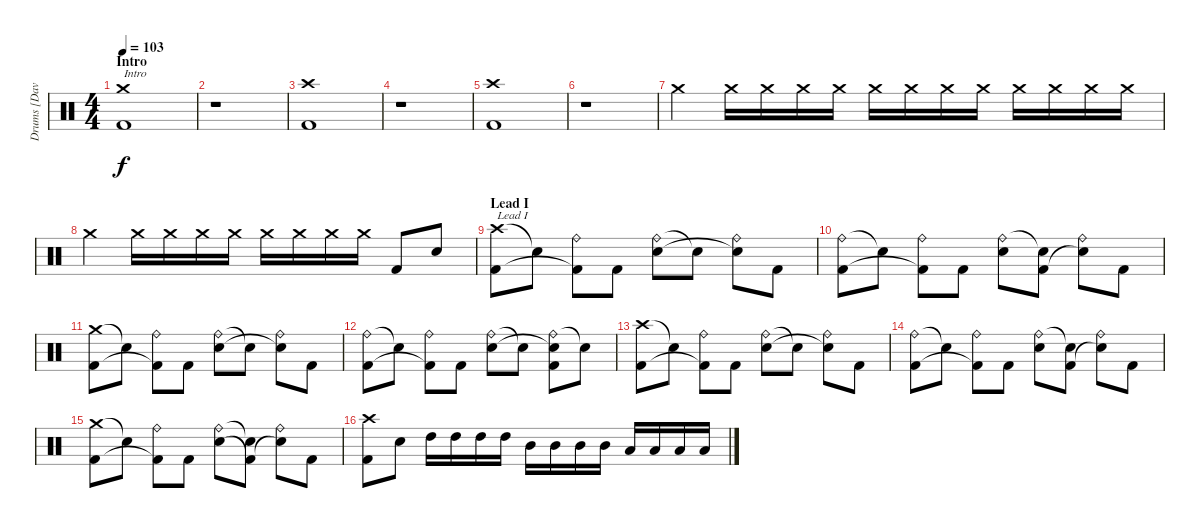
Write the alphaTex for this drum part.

\track ("Drums [Dave Culross]" "Drums [Dav") {instrument percussion}
\staff {score}
\articulation defaults
\ts (4 4)
\section ("" "Intro")
\tempo 103
\clef neutral
\ks c
("Crash medium (hit)" "Kick (hit) 2").1{txt "Intro" dy f} |
r.1 |
("Crash high (hit)" "Kick (hit) 2").1 |
r.1 |
("Crash high (hit)" "Kick (hit) 2").1 |
r.1 |
"Crash medium (hit)".4 "Crash medium (hit)".16{volume 3} "Crash medium (hit)".16{volume 14} "Crash medium (hit)".16 "Crash medium (hit)".16 "Crash medium (hit)".16 "Crash medium (hit)".16 "Crash medium (hit)".16 "Crash medium (hit)".16 "Crash medium (hit)".16 "Crash medium (hit)".16 "Crash medium (hit)".16 "Crash medium (hit)".16 |
"Crash medium (hit)".4 "Crash medium (hit)".16{volume 3} "Crash medium (hit)".16{volume 14} "Crash medium (hit)".16 "Crash medium (hit)".16 "Crash medium (hit)".16 "Crash medium (hit)".16 "Crash medium (hit)".16 "Crash medium (hit)".16 "Kick (hit) 2".8 "Electric Snare (hit)".8 |
\section ("" "Lead I")
("Crash high (hit)" "Kick (hit) 2").8{txt "Lead I"} "Snare (hit)"{t}.8 ("Ride (bell)" "Kick (hit) 2"{t}).8 "Kick (hit) 2".8 ("Ride (bell)" "Electric Snare (hit)").8 "Snare (hit)"{t}.8 ("Ride (bell)" "Snare (hit)"{t}).8 "Kick (hit) 2".8 |
("Ride (bell)" "Kick (hit) 2").8 "Snare (hit)"{t}.8 ("Ride (bell)" "Kick (hit) 2"{t}).8 "Kick (hit) 2".8 ("Ride (bell)" "Electric Snare (hit)").8 ("Snare (hit)"{t} "Kick (hit) 2").8 ("Ride (bell)" "Snare (hit)"{t}).8 "Kick (hit) 2".8 |
("Crash medium (hit)" "Kick (hit) 2").8 "Snare (hit)"{t}.8 ("Ride (bell)" "Kick (hit) 2"{t}).8 "Kick (hit) 2".8 ("Ride (bell)" "Electric Snare (hit)").8 "Snare (hit)"{t}.8 ("Ride (bell)" "Snare (hit)"{t}).8 "Kick (hit) 2".8 |
("Ride (bell)" "Kick (hit) 2").8 "Snare (hit)"{t}.8 ("Ride (bell)" "Kick (hit) 2"{t}).8 "Kick (hit) 2".8 ("Ride (bell)" "Electric Snare (hit)").8 "Snare (hit)"{t}.8 ("Ride (bell)" "Snare (hit)"{t} "Kick (hit) 2").8 "Snare (hit)"{t}.8 |
("Crash high (hit)" "Kick (hit) 2").8 "Snare (hit)"{t}.8 ("Ride (bell)" "Kick (hit) 2"{t}).8 "Kick (hit) 2".8 ("Ride (bell)" "Electric Snare (hit)").8 "Snare (hit)"{t}.8 ("Ride (bell)" "Snare (hit)"{t}).8 "Kick (hit) 2".8 |
("Ride (bell)" "Kick (hit) 2").8 "Snare (hit)"{t}.8 ("Ride (bell)" "Kick (hit) 2"{t}).8 "Kick (hit) 2".8 ("Ride (bell)" "Electric Snare (hit)").8 ("Snare (hit)"{t} "Kick (hit) 2").8 ("Ride (bell)" "Snare (hit)"{t}).8 "Kick (hit) 2".8 |
("Crash medium (hit)" "Kick (hit) 2").8 "Snare (hit)"{t}.8 ("Ride (bell)" "Kick (hit) 2"{t}).8 "Kick (hit) 2".8 ("Ride (bell)" "Electric Snare (hit)").8 ("Snare (hit)"{t} "Kick (hit) 2"{t}).8 ("Ride (bell)" "Snare (hit)"{t}).8 "Kick (hit) 2".8 |
("Crash high (hit)" "Kick (hit) 2").8 "Electric Snare (hit)".8 "High Tom (hit)".16 "High Tom (hit)".16 "High Tom (hit)".16 "High Tom (hit)".16 "Mid Tom (hit)".16 "Mid Tom (hit)".16 "Mid Tom (hit)".16 "Mid Tom (hit)".16 "Low Tom (hit)".16 "Low Tom (hit)".16 "Low Tom (hit)".16 "Low Tom (hit)".16
